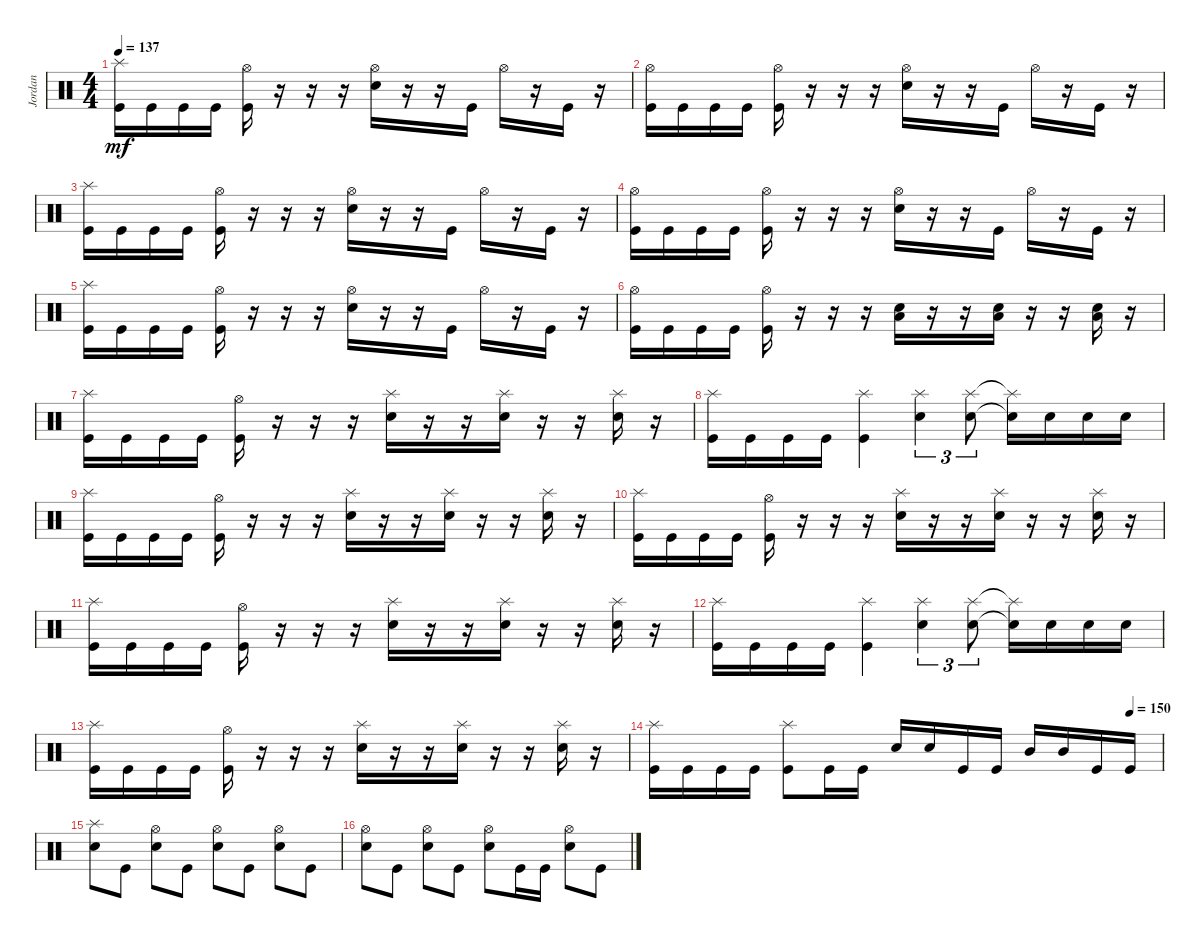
\track ("Jordan" "Jordan") {instrument percussion}
\staff {score}
\articulation defaults
\ts (4 4)
\tempo 137
\clef neutral
\ks c
("Kick (hit)" "Splash (hit)").16{dy mf} "Kick (hit)".16 "Kick (hit)".16 "Kick (hit)".16 ("Kick (hit)" "Hi-Hat (open)").16 r.16 r.16 r.16 ("Snare (hit) 2" "Hi-Hat (open)").16 r.16 r.16 "Kick (hit)".16 "Hi-Hat (open)".16 r.16 "Kick (hit)".16 r.16 |
("Kick (hit)" "Hi-Hat (open)").16 "Kick (hit)".16 "Kick (hit)".16 "Kick (hit)".16 ("Kick (hit)" "Hi-Hat (open)").16 r.16 r.16 r.16 ("Snare (hit) 2" "Hi-Hat (open)").16 r.16 r.16 "Kick (hit)".16 "Hi-Hat (open)".16 r.16 "Kick (hit)".16 r.16 |
("Kick (hit)" "Splash (hit)").16 "Kick (hit)".16 "Kick (hit)".16 "Kick (hit)".16 ("Kick (hit)" "Hi-Hat (open)").16 r.16 r.16 r.16 ("Snare (hit) 2" "Hi-Hat (open)").16 r.16 r.16 "Kick (hit)".16 "Hi-Hat (open)".16 r.16 "Kick (hit)".16 r.16 |
("Kick (hit)" "Hi-Hat (open)").16 "Kick (hit)".16 "Kick (hit)".16 "Kick (hit)".16 ("Kick (hit)" "Hi-Hat (open)").16 r.16 r.16 r.16 ("Snare (hit) 2" "Hi-Hat (open)").16 r.16 r.16 "Kick (hit)".16 "Hi-Hat (open)".16 r.16 "Kick (hit)".16 r.16 |
("Kick (hit)" "Splash (hit)").16 "Kick (hit)".16 "Kick (hit)".16 "Kick (hit)".16 ("Kick (hit)" "Hi-Hat (open)").16 r.16 r.16 r.16 ("Snare (hit) 2" "Hi-Hat (open)").16 r.16 r.16 "Kick (hit)".16 "Hi-Hat (open)".16 r.16 "Kick (hit)".16 r.16 |
("Kick (hit)" "Hi-Hat (open)").16 "Kick (hit)".16 "Kick (hit)".16 "Kick (hit)".16 ("Kick (hit)" "Hi-Hat (open)").16 r.16 r.16 r.16 ("Snare (hit) 2" "Low Floor Tom (hit)").16 r.16 r.16 ("Low Floor Tom (hit)" "Snare (hit) 2").16 r.16 r.16 ("Low Floor Tom (hit)" "Snare (hit) 2").16 r.16 |
("Kick (hit)" "Splash (hit)").16 "Kick (hit)".16 "Kick (hit)".16 "Kick (hit)".16 ("Kick (hit)" "Hi-Hat (open)").16 r.16 r.16 r.16 ("Snare (hit) 2" "Splash (hit)").16 r.16 r.16 ("Snare (hit) 2" "Splash (hit)").16 r.16 r.16 ("Snare (hit) 2" "Splash (hit)").16 r.16 |
("Kick (hit)" "Splash (hit)").16 "Kick (hit)".16 "Kick (hit)".16 "Kick (hit)".16 ("Kick (hit)" "Splash (hit)").4 ("Snare (hit) 2" "Splash (hit)").4{tu (3 2)} ("Snare (hit) 2" "Splash (hit)").8{tu (3 2)} ("Snare (hit) 2"{t} "Splash (hit)"{t}).16 "Snare (hit) 2".16 "Snare (hit) 2".16 "Snare (hit) 2".16 |
("Kick (hit)" "Splash (hit)").16 "Kick (hit)".16 "Kick (hit)".16 "Kick (hit)".16 ("Kick (hit)" "Hi-Hat (open)").16 r.16 r.16 r.16 ("Snare (hit) 2" "Splash (hit)").16 r.16 r.16 ("Snare (hit) 2" "Splash (hit)").16 r.16 r.16 ("Snare (hit) 2" "Splash (hit)").16 r.16 |
("Kick (hit)" "Splash (hit)").16 "Kick (hit)".16 "Kick (hit)".16 "Kick (hit)".16 ("Kick (hit)" "Hi-Hat (open)").16 r.16 r.16 r.16 ("Snare (hit) 2" "Splash (hit)").16 r.16 r.16 ("Snare (hit) 2" "Splash (hit)").16 r.16 r.16 ("Snare (hit) 2" "Splash (hit)").16 r.16 |
("Kick (hit)" "Splash (hit)").16 "Kick (hit)".16 "Kick (hit)".16 "Kick (hit)".16 ("Kick (hit)" "Hi-Hat (open)").16 r.16 r.16 r.16 ("Snare (hit) 2" "Splash (hit)").16 r.16 r.16 ("Snare (hit) 2" "Splash (hit)").16 r.16 r.16 ("Snare (hit) 2" "Splash (hit)").16 r.16 |
("Kick (hit)" "Splash (hit)").16 "Kick (hit)".16 "Kick (hit)".16 "Kick (hit)".16 ("Kick (hit)" "Splash (hit)").4 ("Snare (hit) 2" "Splash (hit)").4{tu (3 2)} ("Snare (hit) 2" "Splash (hit)").8{tu (3 2)} ("Snare (hit) 2"{t} "Splash (hit)"{t}).16 "Snare (hit) 2".16 "Snare (hit) 2".16 "Snare (hit) 2".16 |
("Kick (hit)" "Splash (hit)").16 "Kick (hit)".16 "Kick (hit)".16 "Kick (hit)".16 ("Kick (hit)" "Hi-Hat (open)").16 r.16 r.16 r.16 ("Snare (hit) 2" "Splash (hit)").16 r.16 r.16 ("Snare (hit) 2" "Splash (hit)").16 r.16 r.16 ("Snare (hit) 2" "Splash (hit)").16 r.16 |
\tempo (150 0.9375)
("Kick (hit)" "Splash (hit)").16 "Kick (hit)".16 "Kick (hit)".16 "Kick (hit)".16 ("Kick (hit)" "Splash (hit)").8 "Kick (hit)".16 "Kick (hit)".16 "Snare (hit) 2".16 "Snare (hit) 2".16 "Kick (hit)".16 "Kick (hit)".16 "Mid Tom (hit)".16 "Mid Tom (hit)".16 "Kick (hit)".16 "Kick (hit)".16 |
("Snare (hit) 2" "Splash (hit)").8 "Kick (hit)".8 ("Snare (hit) 2" "Hi-Hat (open)").8 "Kick (hit)".8 ("Snare (hit) 2" "Hi-Hat (open)").8 "Kick (hit)".8 ("Snare (hit) 2" "Hi-Hat (open)").8 "Kick (hit)".8 |
("Snare (hit) 2" "Hi-Hat (open)").8 "Kick (hit)".8 ("Snare (hit) 2" "Hi-Hat (open)").8 "Kick (hit)".8 ("Snare (hit) 2" "Hi-Hat (open)").8 "Kick (hit)".16 "Kick (hit)".16 ("Snare (hit) 2" "Hi-Hat (open)").8 "Kick (hit)".8
